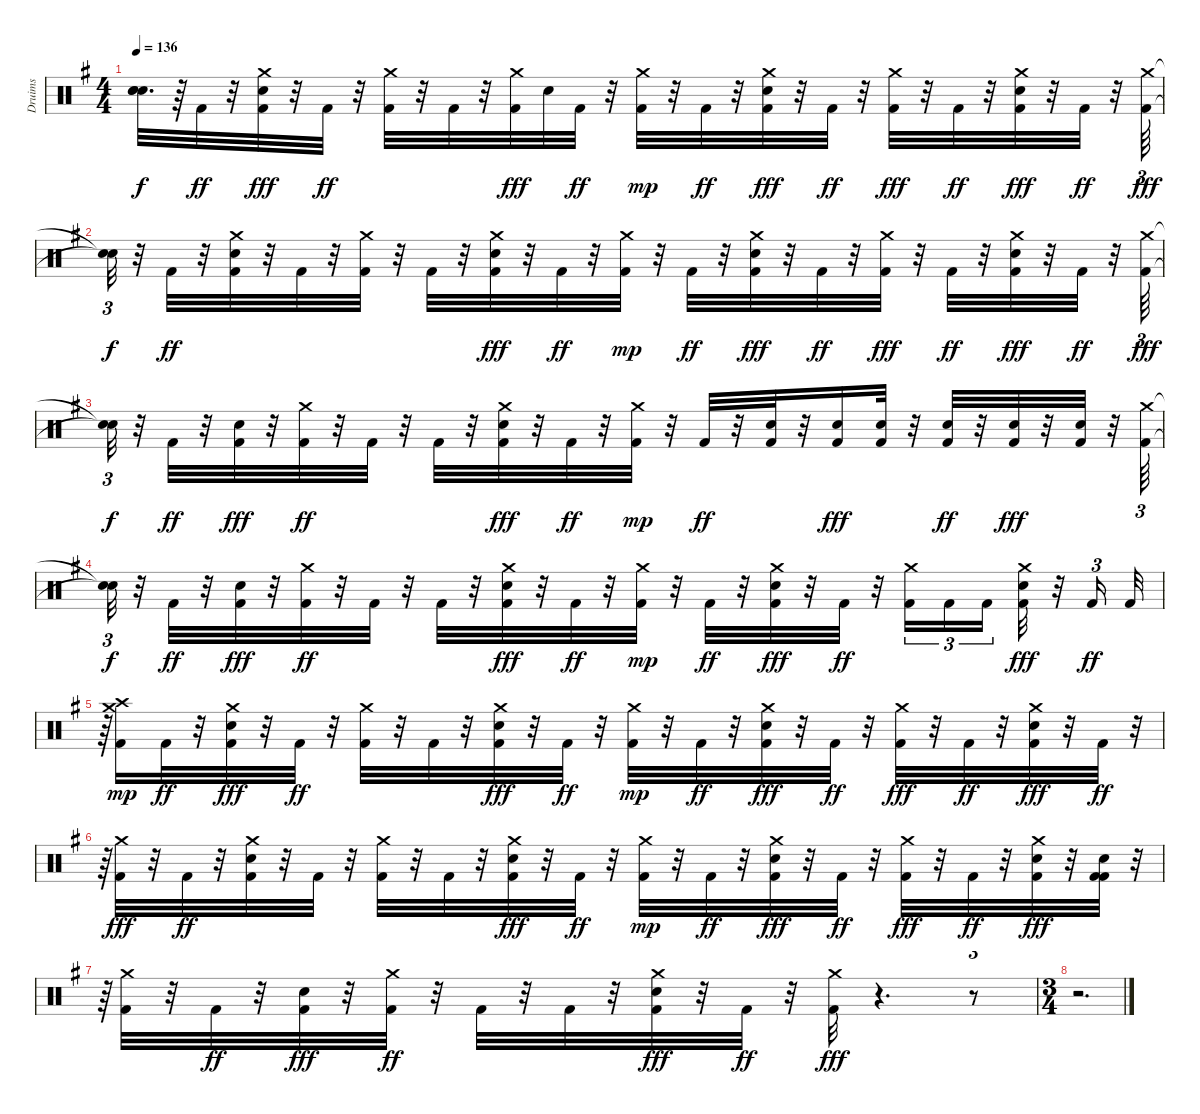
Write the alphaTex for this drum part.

\track ("Druims" "Druims") {instrument percussion}
\staff {score}
\articulation defaults
\ts (4 4)
\tempo 136
\clef neutral
\ks eminor
("Snare (hit)"{t} "Snare (hit)"{t} "Snare (hit)"{t}).32{d dy f} r.64 "Kick (hit) 2".32{dy ff} r.32 ("Kick (hit) 2" "Crash medium (hit)" "Snare (hit) 2").32{dy fff} r.32 "Kick (hit) 2".32{dy ff} r.32 ("Crash medium (hit)" "Kick (hit) 2").32 r.32 "Kick (hit) 2".32 r.32 ("Kick (hit) 2" "Crash medium (hit)").32{dy fff} "Snare (hit) 2".32 "Kick (hit) 2".32{dy ff} r.32 ("Kick (hit) 2" "Crash medium (hit)").32{dy mp} r.32 "Kick (hit) 2".32{dy ff} r.32 ("Kick (hit) 2" "Crash medium (hit)" "Snare (hit) 2").32{dy fff} r.32 "Kick (hit) 2".32{dy ff} r.32 ("Kick (hit) 2" "Crash medium (hit)").32{dy fff} r.32 "Kick (hit) 2".32{dy ff} r.32 ("Kick (hit) 2" "Crash medium (hit)" "Snare (hit) 2").32{dy fff} r.32 "Kick (hit) 2".32{dy ff} r.32 ("Kick (hit) 2" "Crash medium (hit)").64{tu (3 2) dy fff} |
("Snare (hit)"{t} "Snare (hit)"{t}).32{tu (3 2) dy f} r.32 "Kick (hit) 2".32{dy ff} r.32 ("Kick (hit) 2" "Snare (hit) 2" "Crash medium (hit)").32 r.32 "Kick (hit) 2".32 r.32 ("Crash medium (hit)" "Kick (hit) 2").32 r.32 "Kick (hit) 2".32 r.32 ("Kick (hit) 2" "Crash medium (hit)" "Snare (hit) 2").32{dy fff} r.32 "Kick (hit) 2".32{dy ff} r.32 ("Kick (hit) 2" "Crash medium (hit)").32{dy mp} r.32 "Kick (hit) 2".32{dy ff} r.32 ("Kick (hit) 2" "Snare (hit) 2" "Crash medium (hit)").32{dy fff} r.32 "Kick (hit) 2".32{dy ff} r.32 ("Kick (hit) 2" "Crash medium (hit)").32{dy fff} r.32 "Kick (hit) 2".32{dy ff} r.32 ("Crash medium (hit)" "Kick (hit) 2" "Snare (hit) 2").32{dy fff} r.32 "Kick (hit) 2".32{dy ff} r.32 ("Kick (hit) 2" "Crash medium (hit)").64{tu (3 2) dy fff} |
("Snare (hit)"{t} "Snare (hit)"{t}).32{tu (3 2) dy f} r.32 "Kick (hit) 2".32{dy ff} r.32 ("Kick (hit) 2" "Snare (hit) 2").32{dy fff} r.32 ("Crash medium (hit)" "Kick (hit) 2").32{dy ff} r.32 "Kick (hit) 2".32 r.32 "Kick (hit) 2".32 r.32 ("Kick (hit) 2" "Snare (hit) 2" "Crash medium (hit)").32{dy fff} r.32 "Kick (hit) 2".32{dy ff} r.32 ("Kick (hit) 2" "Crash medium (hit)").32{dy mp} r.32 "Kick (hit) 2".32{dy ff} r.32 ("Snare (hit) 2" "Kick (hit) 2").32 r.32 ("Kick (hit) 2" "Snare (hit) 2").16{dy fff} ("Kick (hit) 2" "Snare (hit) 2").32 r.32 ("Snare (hit) 2" "Kick (hit) 2").32{dy ff} r.32 ("Kick (hit) 2" "Snare (hit) 2").32{dy fff} r.32 ("Kick (hit) 2" "Snare (hit) 2").32 r.32 ("Kick (hit) 2" "Crash medium (hit)").64{tu (3 2)} |
("Snare (hit)"{t} "Snare (hit)"{t}).32{tu (3 2) dy f} r.32 "Kick (hit) 2".32{dy ff} r.32 ("Kick (hit) 2" "Snare (hit) 2").32{dy fff} r.32 ("Crash medium (hit)" "Kick (hit) 2").32{dy ff} r.32 "Kick (hit) 2".32 r.32 "Kick (hit) 2".32 r.32 ("Kick (hit) 2" "Crash medium (hit)" "Snare (hit) 2").32{dy fff} r.32 "Kick (hit) 2".32{dy ff} r.32 ("Kick (hit) 2" "Crash medium (hit)").32{dy mp} r.32 "Kick (hit) 2".32{dy ff} r.32 ("Kick (hit) 2" "Snare (hit) 2" "Crash medium (hit)").32{dy fff} r.32 "Kick (hit) 2".32{dy ff} r.32 ("Crash medium (hit)" "Kick (hit) 2").16{tu (3 2)} "Kick (hit) 2".16{tu (3 2)} "Kick (hit) 2".16{tu (3 2) beam splitsecondary} ("Kick (hit) 2" "Crash medium (hit)" "Snare (hit) 2").32{dy fff} r.32 "Kick (hit) 2".16{tu (3 2) dy ff} "Kick (hit) 2".32 |
r.64{tu (3 2)} ("Kick (hit) 2" "Crash high (hit)" "Crash medium (hit)").16{dy mp} "Kick (hit) 2".32{dy ff} r.32 ("Kick (hit) 2" "Crash medium (hit)" "Snare (hit) 2").32{dy fff} r.32 "Kick (hit) 2".32{dy ff} r.32 ("Crash medium (hit)" "Kick (hit) 2").32 r.32 "Kick (hit) 2".32 r.32 ("Kick (hit) 2" "Crash medium (hit)" "Snare (hit) 2").32{dy fff} r.32 "Kick (hit) 2".32{dy ff} r.32 ("Kick (hit) 2" "Crash medium (hit)").32{dy mp} r.32 "Kick (hit) 2".32{dy ff} r.32 ("Kick (hit) 2" "Crash medium (hit)" "Snare (hit) 2").32{dy fff} r.32 "Kick (hit) 2".32{dy ff} r.32 ("Kick (hit) 2" "Crash medium (hit)").32{dy fff} r.32 "Kick (hit) 2".32{dy ff} r.32 ("Kick (hit) 2" "Crash medium (hit)" "Snare (hit) 2").32{dy fff} r.32 "Kick (hit) 2".32{dy ff} r.32{tu (3 2)} |
r.64{tu (3 2)} ("Kick (hit) 2" "Crash medium (hit)").32{dy fff} r.32 "Kick (hit) 2".32{dy ff} r.32 ("Kick (hit) 2" "Snare (hit) 2" "Crash medium (hit)").32 r.32 "Kick (hit) 2".32 r.32 ("Crash medium (hit)" "Kick (hit) 2").32 r.32 "Kick (hit) 2".32 r.32 ("Kick (hit) 2" "Crash medium (hit)" "Snare (hit) 2").32{dy fff} r.32 "Kick (hit) 2".32{dy ff} r.32 ("Kick (hit) 2" "Crash medium (hit)").32{dy mp} r.32 "Kick (hit) 2".32{dy ff} r.32 ("Kick (hit) 2" "Snare (hit) 2" "Crash medium (hit)").32{dy fff} r.32 "Kick (hit) 2".32{dy ff} r.32 ("Kick (hit) 2" "Crash medium (hit)").32{dy fff} r.32 "Kick (hit) 2".32{dy ff} r.32 ("Crash medium (hit)" "Kick (hit) 2" "Snare (hit) 2").32{dy fff} r.32 ("Kick (hit) 2" "Kick (hit) 2" "Snare (hit) 2").32 r.32{tu (3 2)} |
r.64{tu (3 2)} ("Kick (hit) 2" "Crash medium (hit)").32 r.32 "Kick (hit) 2".32{dy ff} r.32 ("Kick (hit) 2" "Snare (hit) 2").32{dy fff} r.32 ("Crash medium (hit)" "Kick (hit) 2").32{dy ff} r.32 "Kick (hit) 2".32 r.32 "Kick (hit) 2".32 r.32 ("Kick (hit) 2" "Crash medium (hit)" "Snare (hit) 2").32{dy fff} r.32 "Kick (hit) 2".32{dy ff} r.32 ("Kick (hit) 2" "Crash medium (hit)").32{dy fff} r.4{d} r.8{tu (3 2)} |
\ts (3 4)
r.2{d}
